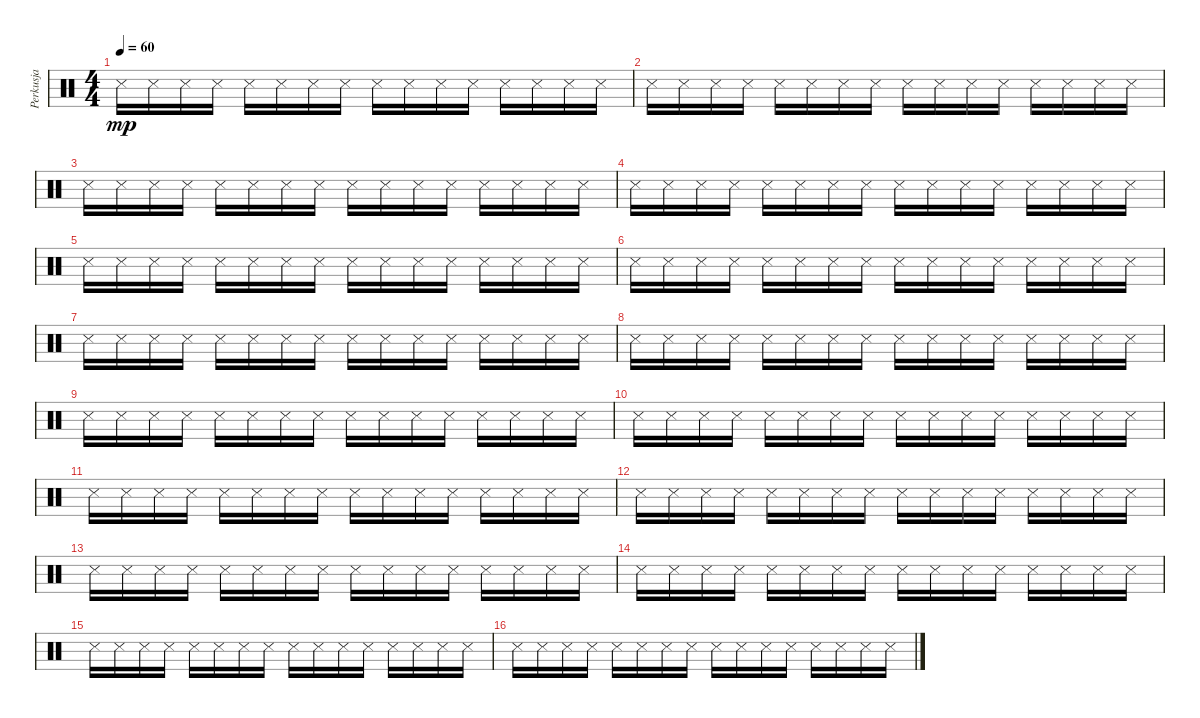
\track ("Perkusja" "Perkusja") {instrument percussion}
\staff {score}
\articulation defaults
\ts (4 4)
\tempo 60
\clef neutral
\ks c "Metronome (hit)".16{dy mp} "Snare (side stick) 3".16 "Metronome (hit)".16 "Snare (side stick) 3".16 "Metronome (hit)".16 "Snare (side stick) 3".16 "Metronome (hit)".16 "Snare (side stick) 3".16 "Metronome (hit)".16 "Snare (side stick) 3".16 "Metronome (hit)".16 "Snare (side stick) 3".16 "Metronome (hit)".16 "Snare (side stick) 3".16 "Metronome (hit)".16 "Snare (side stick) 3".16
|
"Metronome (hit)".16 "Snare (side stick) 3".16 "Metronome (hit)".16 "Snare (side stick) 3".16 "Metronome (hit)".16 "Snare (side stick) 3".16 "Metronome (hit)".16 "Snare (side stick) 3".16 "Metronome (hit)".16 "Snare (side stick) 3".16 "Metronome (hit)".16 "Snare (side stick) 3".16 "Metronome (hit)".16 "Snare (side stick) 3".16 "Metronome (hit)".16 "Snare (side stick) 3".16 |
"Metronome (hit)".16 "Snare (side stick) 3".16 "Metronome (hit)".16 "Snare (side stick) 3".16 "Metronome (hit)".16 "Snare (side stick) 3".16 "Metronome (hit)".16 "Snare (side stick) 3".16 "Metronome (hit)".16 "Snare (side stick) 3".16 "Metronome (hit)".16 "Snare (side stick) 3".16 "Metronome (hit)".16 "Snare (side stick) 3".16 "Metronome (hit)".16 "Snare (side stick) 3".16 |
"Metronome (hit)".16 "Snare (side stick) 3".16 "Metronome (hit)".16 "Snare (side stick) 3".16 "Metronome (hit)".16 "Snare (side stick) 3".16 "Metronome (hit)".16 "Snare (side stick) 3".16 "Metronome (hit)".16 "Snare (side stick) 3".16 "Metronome (hit)".16 "Snare (side stick) 3".16 "Metronome (hit)".16 "Snare (side stick) 3".16 "Metronome (hit)".16 "Snare (side stick) 3".16 |
"Metronome (hit)".16 "Snare (side stick) 3".16 "Metronome (hit)".16 "Snare (side stick) 3".16 "Metronome (hit)".16 "Snare (side stick) 3".16 "Metronome (hit)".16 "Snare (side stick) 3".16 "Metronome (hit)".16 "Snare (side stick) 3".16 "Metronome (hit)".16 "Snare (side stick) 3".16 "Metronome (hit)".16 "Snare (side stick) 3".16 "Metronome (hit)".16 "Snare (side stick) 3".16 |
"Metronome (hit)".16 "Snare (side stick) 3".16 "Metronome (hit)".16 "Snare (side stick) 3".16 "Metronome (hit)".16 "Snare (side stick) 3".16 "Metronome (hit)".16 "Snare (side stick) 3".16 "Metronome (hit)".16 "Snare (side stick) 3".16 "Metronome (hit)".16 "Snare (side stick) 3".16 "Metronome (hit)".16 "Snare (side stick) 3".16 "Metronome (hit)".16 "Snare (side stick) 3".16 |
"Metronome (hit)".16 "Snare (side stick) 3".16 "Metronome (hit)".16 "Snare (side stick) 3".16 "Metronome (hit)".16 "Snare (side stick) 3".16 "Metronome (hit)".16 "Snare (side stick) 3".16 "Metronome (hit)".16 "Snare (side stick) 3".16 "Metronome (hit)".16 "Snare (side stick) 3".16 "Metronome (hit)".16 "Snare (side stick) 3".16 "Metronome (hit)".16 "Snare (side stick) 3".16 |
"Metronome (hit)".16 "Snare (side stick) 3".16 "Metronome (hit)".16 "Snare (side stick) 3".16 "Metronome (hit)".16 "Snare (side stick) 3".16 "Metronome (hit)".16 "Snare (side stick) 3".16 "Metronome (hit)".16 "Snare (side stick) 3".16 "Metronome (hit)".16 "Snare (side stick) 3".16 "Metronome (hit)".16 "Snare (side stick) 3".16 "Metronome (hit)".16 "Snare (side stick) 3".16 |
"Metronome (hit)".16 "Snare (side stick) 3".16 "Metronome (hit)".16 "Snare (side stick) 3".16 "Metronome (hit)".16 "Snare (side stick) 3".16 "Metronome (hit)".16 "Snare (side stick) 3".16 "Metronome (hit)".16 "Snare (side stick) 3".16 "Metronome (hit)".16 "Snare (side stick) 3".16 "Metronome (hit)".16 "Snare (side stick) 3".16 "Metronome (hit)".16 "Snare (side stick) 3".16 |
"Metronome (hit)".16 "Snare (side stick) 3".16 "Metronome (hit)".16 "Snare (side stick) 3".16 "Metronome (hit)".16 "Snare (side stick) 3".16 "Metronome (hit)".16 "Snare (side stick) 3".16 "Metronome (hit)".16 "Snare (side stick) 3".16 "Metronome (hit)".16 "Snare (side stick) 3".16 "Metronome (hit)".16 "Snare (side stick) 3".16 "Metronome (hit)".16 "Snare (side stick) 3".16 |
"Metronome (hit)".16 "Snare (side stick) 3".16 "Metronome (hit)".16 "Snare (side stick) 3".16 "Metronome (hit)".16 "Snare (side stick) 3".16 "Metronome (hit)".16 "Snare (side stick) 3".16 "Metronome (hit)".16 "Snare (side stick) 3".16 "Metronome (hit)".16 "Snare (side stick) 3".16 "Metronome (hit)".16 "Snare (side stick) 3".16 "Metronome (hit)".16 "Snare (side stick) 3".16 |
"Metronome (hit)".16 "Snare (side stick) 3".16 "Metronome (hit)".16 "Snare (side stick) 3".16 "Metronome (hit)".16 "Snare (side stick) 3".16 "Metronome (hit)".16 "Snare (side stick) 3".16 "Metronome (hit)".16 "Snare (side stick) 3".16 "Metronome (hit)".16 "Snare (side stick) 3".16 "Metronome (hit)".16 "Snare (side stick) 3".16 "Metronome (hit)".16 "Snare (side stick) 3".16 |
"Metronome (hit)".16 "Snare (side stick) 3".16 "Metronome (hit)".16 "Snare (side stick) 3".16 "Metronome (hit)".16 "Snare (side stick) 3".16 "Metronome (hit)".16 "Snare (side stick) 3".16 "Metronome (hit)".16 "Snare (side stick) 3".16 "Metronome (hit)".16 "Snare (side stick) 3".16 "Metronome (hit)".16 "Snare (side stick) 3".16 "Metronome (hit)".16 "Snare (side stick) 3".16 |
"Metronome (hit)".16 "Snare (side stick) 3".16 "Metronome (hit)".16 "Snare (side stick) 3".16 "Metronome (hit)".16 "Snare (side stick) 3".16 "Metronome (hit)".16 "Snare (side stick) 3".16 "Metronome (hit)".16 "Snare (side stick) 3".16 "Metronome (hit)".16 "Snare (side stick) 3".16 "Metronome (hit)".16 "Snare (side stick) 3".16 "Metronome (hit)".16 "Snare (side stick) 3".16 |
"Metronome (hit)".16 "Snare (side stick) 3".16 "Metronome (hit)".16 "Snare (side stick) 3".16 "Metronome (hit)".16 "Snare (side stick) 3".16 "Metronome (hit)".16 "Snare (side stick) 3".16 "Metronome (hit)".16 "Snare (side stick) 3".16 "Metronome (hit)".16 "Snare (side stick) 3".16 "Metronome (hit)".16 "Snare (side stick) 3".16 "Metronome (hit)".16 "Snare (side stick) 3".16 |
"Metronome (hit)".16 "Snare (side stick) 3".16 "Metronome (hit)".16 "Snare (side stick) 3".16 "Metronome (hit)".16 "Snare (side stick) 3".16 "Metronome (hit)".16 "Snare (side stick) 3".16 "Metronome (hit)".16 "Snare (side stick) 3".16 "Metronome (hit)".16 "Snare (side stick) 3".16 "Metronome (hit)".16 "Snare (side stick) 3".16 "Metronome (hit)".16 "Snare (side stick) 3".16
